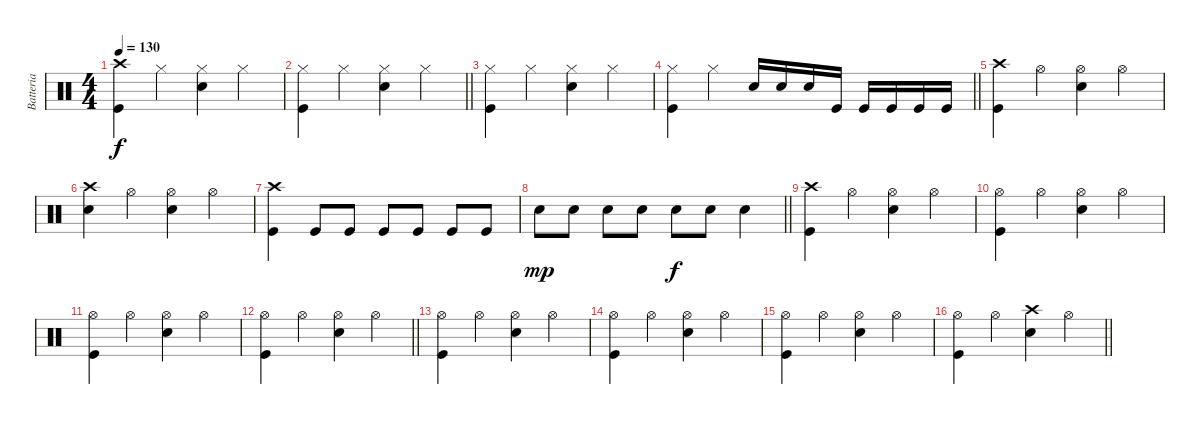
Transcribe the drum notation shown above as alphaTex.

\track ("Batteria" "Batteria") {instrument percussion}
\staff {score}
\articulation defaults
\ts (4 4)
\tempo 130
\clef neutral
\ks c
("Kick (hit)" "Crash high (hit)").4{dy f} "Hi-Hat (closed)".4 ("Snare (hit) 2" "Hi-Hat (closed)").4 "Hi-Hat (closed)".4 |
\barLineRight lightlight
("Kick (hit)" "Hi-Hat (closed)").4 "Hi-Hat (closed)".4 ("Snare (hit) 2" "Hi-Hat (closed)").4 "Hi-Hat (closed)".4 |
("Kick (hit)" "Hi-Hat (closed)").4 "Hi-Hat (closed)".4 ("Snare (hit) 2" "Hi-Hat (closed)").4 "Hi-Hat (closed)".4 |
\barLineRight lightlight
("Kick (hit)" "Hi-Hat (closed)").4 "Hi-Hat (closed)".4 "Snare (hit) 2".16 "Snare (hit) 2".16 "Snare (hit) 2".16 "Kick (hit)".16 "Kick (hit)".16 "Kick (hit)".16 "Kick (hit)".16 "Kick (hit)".16 |
("Kick (hit)" "Crash high (hit)").4 "Hi-Hat (open)".4 ("Snare (hit) 2" "Hi-Hat (open)").4 "Hi-Hat (open)".4 |
("Crash high (hit)" "Snare (hit) 2").4 "Hi-Hat (open)".4 ("Snare (hit) 2" "Hi-Hat (open)").4 "Hi-Hat (open)".4 |
("Kick (hit)" "Crash high (hit)").4 "Kick (hit)".8 "Kick (hit)".8 "Kick (hit)".8 "Kick (hit)".8 "Kick (hit)".8 "Kick (hit)".8 |
\barLineRight lightlight "Snare (hit) 2".8{dy mp} "Snare (hit) 2".8 "Snare (hit) 2".8 "Snare (hit) 2".8 "Snare (hit) 2".8{dy f} "Snare (hit) 2".8 "Snare (hit) 2".4
|
("Kick (hit)" "Crash high (hit)").4 "Hi-Hat (open)".4 ("Snare (hit) 2" "Hi-Hat (open)").4 "Hi-Hat (open)".4 |
("Kick (hit)" "Hi-Hat (open)").4 "Hi-Hat (open)".4 ("Snare (hit) 2" "Hi-Hat (open)").4 "Hi-Hat (open)".4 |
("Kick (hit)" "Hi-Hat (open)").4 "Hi-Hat (open)".4 ("Snare (hit) 2" "Hi-Hat (open)").4 "Hi-Hat (open)".4 |
\barLineRight lightlight
("Kick (hit)" "Hi-Hat (open)").4 "Hi-Hat (open)".4 ("Snare (hit) 2" "Hi-Hat (open)").4 "Hi-Hat (open)".4 |
("Kick (hit)" "Hi-Hat (open)").4 "Hi-Hat (open)".4 ("Snare (hit) 2" "Hi-Hat (open)").4 "Hi-Hat (open)".4 |
("Kick (hit)" "Hi-Hat (open)").4 "Hi-Hat (open)".4 ("Snare (hit) 2" "Hi-Hat (open)").4 "Hi-Hat (open)".4 |
("Kick (hit)" "Hi-Hat (open)").4 "Hi-Hat (open)".4 ("Snare (hit) 2" "Hi-Hat (open)").4 "Hi-Hat (open)".4 |
\barLineRight lightlight
("Kick (hit)" "Hi-Hat (open)").4 "Hi-Hat (open)".4 ("Snare (hit) 2" "Crash high (hit)").4 "Hi-Hat (open)".4
